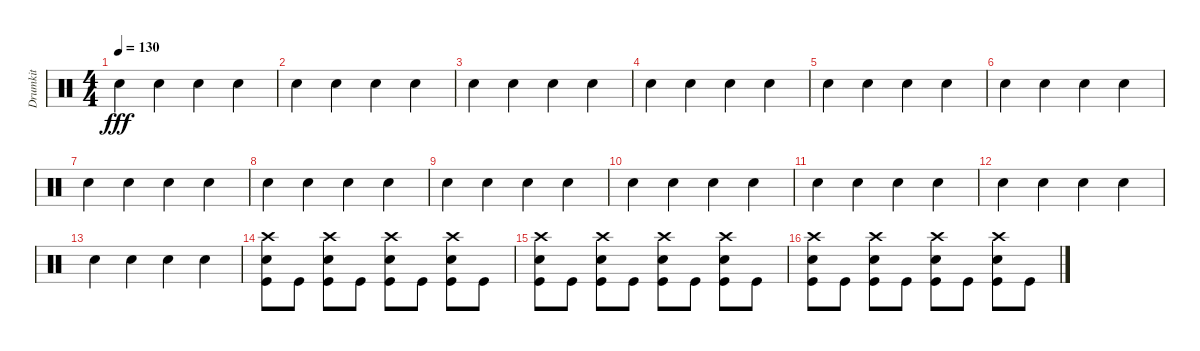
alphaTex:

\track ("Drumkit" "Drumkit") {instrument percussion}
\staff {score}
\articulation defaults
\ts (4 4)
\tempo 130
\clef neutral
\ks c "Snare (hit) 2".4{dy fff} "Snare (hit) 2".4 "Snare (hit) 2".4 "Snare (hit) 2".4
|
"Snare (hit) 2".4 "Snare (hit) 2".4 "Snare (hit) 2".4 "Snare (hit) 2".4 |
"Snare (hit) 2".4 "Snare (hit) 2".4 "Snare (hit) 2".4 "Snare (hit) 2".4 |
"Snare (hit) 2".4 "Snare (hit) 2".4 "Snare (hit) 2".4 "Snare (hit) 2".4 |
"Snare (hit) 2".4 "Snare (hit) 2".4 "Snare (hit) 2".4 "Snare (hit) 2".4 |
"Snare (hit) 2".4 "Snare (hit) 2".4 "Snare (hit) 2".4 "Snare (hit) 2".4 |
"Snare (hit) 2".4 "Snare (hit) 2".4 "Snare (hit) 2".4 "Snare (hit) 2".4 |
"Snare (hit) 2".4 "Snare (hit) 2".4 "Snare (hit) 2".4 "Snare (hit) 2".4 |
"Snare (hit) 2".4 "Snare (hit) 2".4 "Snare (hit) 2".4 "Snare (hit) 2".4 |
"Snare (hit) 2".4 "Snare (hit) 2".4 "Snare (hit) 2".4 "Snare (hit) 2".4 |
"Snare (hit) 2".4 "Snare (hit) 2".4 "Snare (hit) 2".4 "Snare (hit) 2".4 |
"Snare (hit) 2".4 "Snare (hit) 2".4 "Snare (hit) 2".4 "Snare (hit) 2".4 |
"Snare (hit) 2".4 "Snare (hit) 2".4 "Snare (hit) 2".4 "Snare (hit) 2".4 |
("Kick (hit)" "Snare (hit) 2" "Crash high (hit)").8 "Kick (hit)".8 ("Kick (hit)" "Snare (hit) 2" "Crash high (hit)").8 "Kick (hit)".8 ("Kick (hit)" "Snare (hit) 2" "Crash high (hit)").8 "Kick (hit)".8 ("Kick (hit)" "Snare (hit) 2" "Crash high (hit)").8 "Kick (hit)".8 |
("Kick (hit)" "Snare (hit) 2" "Crash high (hit)").8 "Kick (hit)".8 ("Kick (hit)" "Snare (hit) 2" "Crash high (hit)").8 "Kick (hit)".8 ("Kick (hit)" "Snare (hit) 2" "Crash high (hit)").8 "Kick (hit)".8 ("Kick (hit)" "Snare (hit) 2" "Crash high (hit)").8 "Kick (hit)".8 |
("Kick (hit)" "Snare (hit) 2" "Crash high (hit)").8 "Kick (hit)".8 ("Kick (hit)" "Snare (hit) 2" "Crash high (hit)").8 "Kick (hit)".8 ("Kick (hit)" "Snare (hit) 2" "Crash high (hit)").8 "Kick (hit)".8 ("Kick (hit)" "Snare (hit) 2" "Crash high (hit)").8 "Kick (hit)".8
